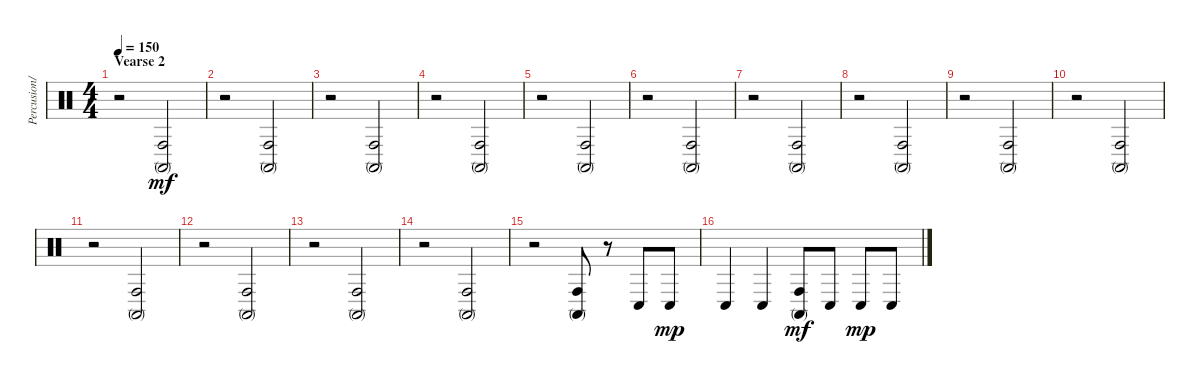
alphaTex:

\track ("Percusion/Drum" "Percusion/") {instrument percussion}
\staff {score}
\articulation defaults
\ts (4 4)
\section ("" "Vearse 2")
\tempo 150
\clef neutral
\ks c
r.2{dy p} ("Conga high (mute)" "Conga high (hit)").2{dy mf} |
r.2 ("Conga high (mute)" "Conga high (hit)").2 |
r.2 ("Conga high (mute)" "Conga high (hit)").2 |
r.2 ("Conga high (mute)" "Conga high (hit)").2 |
r.2 ("Conga high (mute)" "Conga high (hit)").2 |
r.2 ("Conga high (mute)" "Conga high (hit)").2 |
r.2 ("Conga high (mute)" "Conga high (hit)").2 |
r.2 ("Conga high (mute)" "Conga high (hit)").2 |
r.2 ("Conga high (mute)" "Conga high (hit)").2 |
r.2 ("Conga high (mute)" "Conga high (hit)").2 |
r.2 ("Conga high (mute)" "Conga high (hit)").2 |
r.2 ("Conga high (mute)" "Conga high (hit)").2 |
r.2 ("Conga high (mute)" "Conga high (hit)").2 |
r.2 ("Conga high (mute)" "Conga high (hit)").2 |
r.2 ("Conga high (mute)" "Conga high (hit)").8 r.8 "Conga low (hit)".8 "Conga low (hit)".8{dy mp} |
"Conga low (hit)".4 "Conga low (hit)".4 ("Conga high (mute)" "Conga high (hit)").8{dy mf} "Conga low (hit)".8 "Conga low (hit)".8{dy mp} "Conga low (hit)".8
